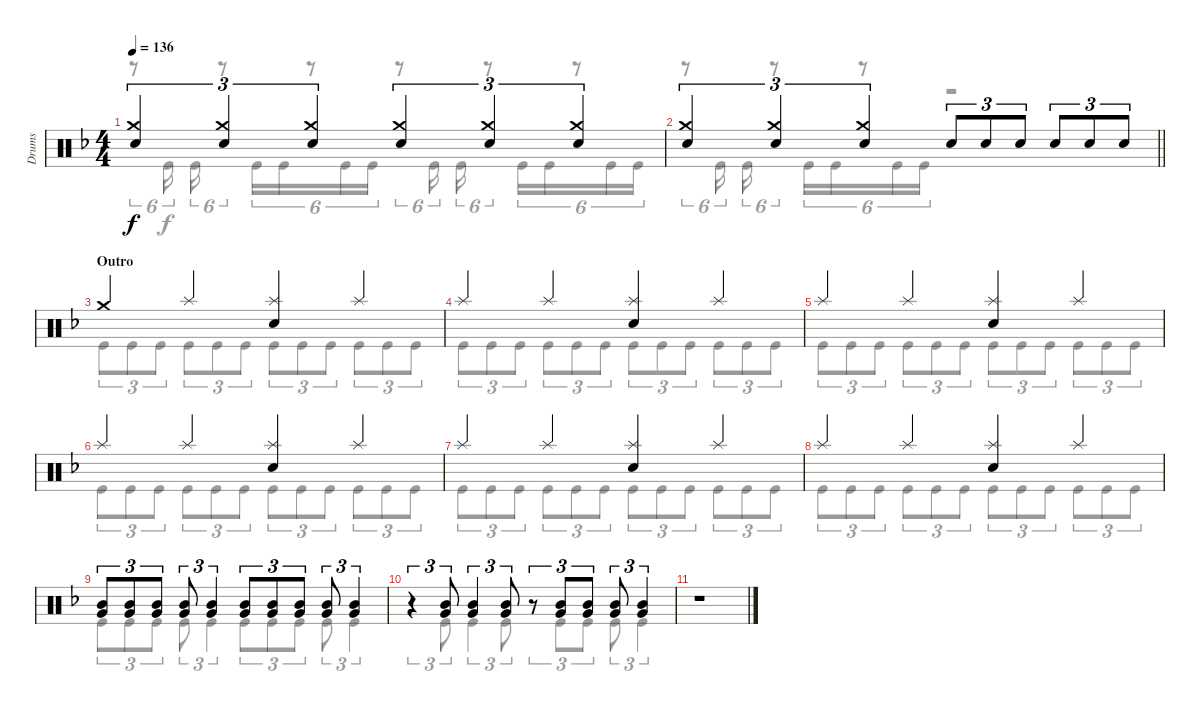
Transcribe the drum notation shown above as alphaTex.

\track ("Drums" "Drums") {instrument percussion}
\staff {score}
\articulation defaults
\voice
\ts (4 4)
\tempo 136
\clef neutral
\ks dminor
("Crash medium (hit)" "Electric Snare (hit)").4{tu (3 2) dy f} ("Crash medium (hit)" "Electric Snare (hit)").4{tu (3 2)} ("Crash medium (hit)" "Electric Snare (hit)").4{tu (3 2)} ("Crash medium (hit)" "Electric Snare (hit)").4{tu (3 2)} ("Crash medium (hit)" "Electric Snare (hit)").4{tu (3 2)} ("Crash medium (hit)" "Electric Snare (hit)").4{tu (3 2)} |
\barLineRight lightlight
("Crash medium (hit)" "Electric Snare (hit)").4{tu (3 2)} ("Crash medium (hit)" "Electric Snare (hit)").4{tu (3 2)} ("Crash medium (hit)" "Electric Snare (hit)").4{tu (3 2)} "Electric Snare (hit)".8{tu (3 2)} "Electric Snare (hit)".8{tu (3 2)} "Electric Snare (hit)".8{tu (3 2)} "Electric Snare (hit)".8{tu (3 2)} "Electric Snare (hit)".8{tu (3 2)} "Electric Snare (hit)".8{tu (3 2)} |
\section ("" "Outro")
"Crash medium (hit)".4 "Splash (hit)".4 ("Splash (hit)" "Electric Snare (hit)").4 "Splash (hit)".4 |
"Splash (hit)".4 "Splash (hit)".4 ("Splash (hit)" "Electric Snare (hit)").4 "Splash (hit)".4 |
"Splash (hit)".4 "Splash (hit)".4 ("Splash (hit)" "Electric Snare (hit)").4 "Splash (hit)".4 |
"Splash (hit)".4 "Splash (hit)".4 ("Splash (hit)" "Electric Snare (hit)").4 "Splash (hit)".4 |
"Splash (hit)".4 "Splash (hit)".4 ("Splash (hit)" "Electric Snare (hit)").4 "Splash (hit)".4 |
"Splash (hit)".4 "Splash (hit)".4 ("Splash (hit)" "Electric Snare (hit)").4 "Splash (hit)".4 |
("Mid Tom (hit)" "Very Low Tom (hit)").8{tu (3 2)} ("Mid Tom (hit)" "Very Low Tom (hit)").8{tu (3 2)} ("Mid Tom (hit)" "Very Low Tom (hit)").8{tu (3 2)} ("Mid Tom (hit)" "Very Low Tom (hit)").8{tu (3 2)} ("Mid Tom (hit)" "Very Low Tom (hit)").4{tu (3 2)} ("Mid Tom (hit)" "Very Low Tom (hit)").8{tu (3 2)} ("Mid Tom (hit)" "Very Low Tom (hit)").8{tu (3 2)} ("Mid Tom (hit)" "Very Low Tom (hit)").8{tu (3 2)} ("Mid Tom (hit)" "Very Low Tom (hit)").8{tu (3 2)} ("Mid Tom (hit)" "Very Low Tom (hit)").4{tu (3 2)} |
r.4{tu (3 2)} ("Mid Tom (hit)" "Very Low Tom (hit)").8{tu (3 2)} ("Mid Tom (hit)" "Very Low Tom (hit)").4{tu (3 2)} ("Mid Tom (hit)" "Very Low Tom (hit)").8{tu (3 2)} r.8{tu (3 2)} ("Mid Tom (hit)" "Very Low Tom (hit)").8{tu (3 2)} ("Mid Tom (hit)" "Very Low Tom (hit)").8{tu (3 2)} ("Mid Tom (hit)" "Very Low Tom (hit)").8{tu (3 2)} ("Mid Tom (hit)" "Very Low Tom (hit)").4{tu (3 2)} |
r.1
\voice
\clef neutral
\ottava regular
\simile none
\ks dminor
r.8{tu (6 4) dy f} "Kick (hit)".16{tu (6 4)} "Kick (hit)".16{tu (6 4)} r.8{tu (6 4)} "Kick (hit)".16{tu (6 4)} "Kick (hit)".16{tu (6 4)} r.8{tu (6 4)} "Kick (hit)".16{tu (6 4)} "Kick (hit)".16{tu (6 4)} r.8{tu (6 4)} "Kick (hit)".16{tu (6 4)} "Kick (hit)".16{tu (6 4)} r.8{tu (6 4)} "Kick (hit)".16{tu (6 4)} "Kick (hit)".16{tu (6 4)} r.8{tu (6 4)} "Kick (hit)".16{tu (6 4)} "Kick (hit)".16{tu (6 4)} |
\barLineRight lightlight
r.8{tu (6 4)} "Kick (hit)".16{tu (6 4)} "Kick (hit)".16{tu (6 4)} r.8{tu (6 4)} "Kick (hit)".16{tu (6 4)} "Kick (hit)".16{tu (6 4)} r.8{tu (6 4)} "Kick (hit)".16{tu (6 4)} "Kick (hit)".16{tu (6 4)} r.2 |
"Kick (hit)".8{tu (3 2)} "Kick (hit)".8{tu (3 2)} "Kick (hit)".8{tu (3 2)} "Kick (hit)".8{tu (3 2)} "Kick (hit)".8{tu (3 2)} "Kick (hit)".8{tu (3 2)} "Kick (hit)".8{tu (3 2)} "Kick (hit)".8{tu (3 2)} "Kick (hit)".8{tu (3 2)} "Kick (hit)".8{tu (3 2)} "Kick (hit)".8{tu (3 2)} "Kick (hit)".8{tu (3 2)} |
"Kick (hit)".8{tu (3 2)} "Kick (hit)".8{tu (3 2)} "Kick (hit)".8{tu (3 2)} "Kick (hit)".8{tu (3 2)} "Kick (hit)".8{tu (3 2)} "Kick (hit)".8{tu (3 2)} "Kick (hit)".8{tu (3 2)} "Kick (hit)".8{tu (3 2)} "Kick (hit)".8{tu (3 2)} "Kick (hit)".8{tu (3 2)} "Kick (hit)".8{tu (3 2)} "Kick (hit)".8{tu (3 2)} |
"Kick (hit)".8{tu (3 2)} "Kick (hit)".8{tu (3 2)} "Kick (hit)".8{tu (3 2)} "Kick (hit)".8{tu (3 2)} "Kick (hit)".8{tu (3 2)} "Kick (hit)".8{tu (3 2)} "Kick (hit)".8{tu (3 2)} "Kick (hit)".8{tu (3 2)} "Kick (hit)".8{tu (3 2)} "Kick (hit)".8{tu (3 2)} "Kick (hit)".8{tu (3 2)} "Kick (hit)".8{tu (3 2)} |
"Kick (hit)".8{tu (3 2)} "Kick (hit)".8{tu (3 2)} "Kick (hit)".8{tu (3 2)} "Kick (hit)".8{tu (3 2)} "Kick (hit)".8{tu (3 2)} "Kick (hit)".8{tu (3 2)} "Kick (hit)".8{tu (3 2)} "Kick (hit)".8{tu (3 2)} "Kick (hit)".8{tu (3 2)} "Kick (hit)".8{tu (3 2)} "Kick (hit)".8{tu (3 2)} "Kick (hit)".8{tu (3 2)} |
"Kick (hit)".8{tu (3 2)} "Kick (hit)".8{tu (3 2)} "Kick (hit)".8{tu (3 2)} "Kick (hit)".8{tu (3 2)} "Kick (hit)".8{tu (3 2)} "Kick (hit)".8{tu (3 2)} "Kick (hit)".8{tu (3 2)} "Kick (hit)".8{tu (3 2)} "Kick (hit)".8{tu (3 2)} "Kick (hit)".8{tu (3 2)} "Kick (hit)".8{tu (3 2)} "Kick (hit)".8{tu (3 2)} |
"Kick (hit)".8{tu (3 2)} "Kick (hit)".8{tu (3 2)} "Kick (hit)".8{tu (3 2)} "Kick (hit)".8{tu (3 2)} "Kick (hit)".8{tu (3 2)} "Kick (hit)".8{tu (3 2)} "Kick (hit)".8{tu (3 2)} "Kick (hit)".8{tu (3 2)} "Kick (hit)".8{tu (3 2)} "Kick (hit)".8{tu (3 2)} "Kick (hit)".8{tu (3 2)} "Kick (hit)".8{tu (3 2)} |
"Kick (hit)".8{tu (3 2)} "Kick (hit)".8{tu (3 2)} "Kick (hit)".8{tu (3 2)} "Kick (hit)".8{tu (3 2)} "Kick (hit)".4{tu (3 2)} "Kick (hit)".8{tu (3 2)} "Kick (hit)".8{tu (3 2)} "Kick (hit)".8{tu (3 2)} "Kick (hit)".8{tu (3 2)} "Kick (hit)".4{tu (3 2)} |
r.4{tu (3 2)} "Kick (hit)".8{tu (3 2)} "Kick (hit)".4{tu (3 2)} "Kick (hit)".8{tu (3 2)} r.8{tu (3 2)} "Kick (hit)".8{tu (3 2)} "Kick (hit)".8{tu (3 2)} "Kick (hit)".8{tu (3 2)} "Kick (hit)".4{tu (3 2)} |
r.1
